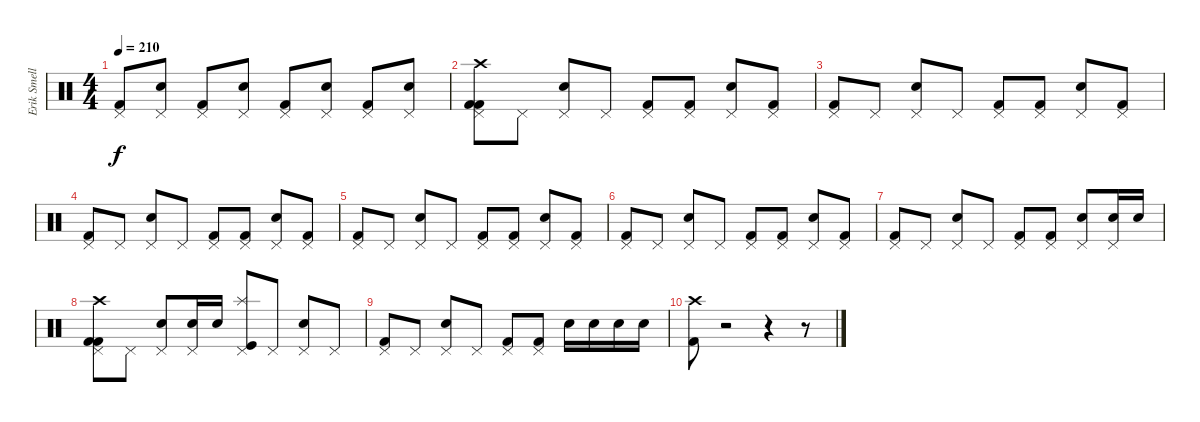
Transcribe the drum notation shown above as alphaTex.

\track ("Erik Smelly" "Erik Smell") {instrument percussion}
\staff {score}
\articulation defaults
\ts (4 4)
\tempo 210
\clef neutral
\ks c
("Pedal Hi-Hat (hit)" "Kick (hit) 2").8{dy f} ("Pedal Hi-Hat (hit)" "Electric Snare (hit)").8 ("Pedal Hi-Hat (hit)" "Kick (hit) 2").8 ("Pedal Hi-Hat (hit)" "Electric Snare (hit)").8 ("Pedal Hi-Hat (hit)" "Kick (hit) 2").8 ("Pedal Hi-Hat (hit)" "Electric Snare (hit)").8 ("Pedal Hi-Hat (hit)" "Kick (hit) 2").8 ("Pedal Hi-Hat (hit)" "Electric Snare (hit)").8 |
("Pedal Hi-Hat (hit)" "Kick (hit) 2" "Crash high (hit)" "Kick (hit) 2").8 "Pedal Hi-Hat (hit)".8 ("Pedal Hi-Hat (hit)" "Electric Snare (hit)").8 "Pedal Hi-Hat (hit)".8 ("Pedal Hi-Hat (hit)" "Kick (hit) 2").8 ("Pedal Hi-Hat (hit)" "Kick (hit) 2").8 ("Pedal Hi-Hat (hit)" "Electric Snare (hit)").8 ("Kick (hit) 2" "Pedal Hi-Hat (hit)").8 |
("Pedal Hi-Hat (hit)" "Kick (hit) 2").8 "Pedal Hi-Hat (hit)".8 ("Pedal Hi-Hat (hit)" "Electric Snare (hit)").8 "Pedal Hi-Hat (hit)".8 ("Pedal Hi-Hat (hit)" "Kick (hit) 2").8 ("Pedal Hi-Hat (hit)" "Kick (hit) 2").8 ("Pedal Hi-Hat (hit)" "Electric Snare (hit)").8 ("Kick (hit) 2" "Pedal Hi-Hat (hit)").8 |
("Pedal Hi-Hat (hit)" "Kick (hit) 2").8 "Pedal Hi-Hat (hit)".8 ("Pedal Hi-Hat (hit)" "Electric Snare (hit)").8 "Pedal Hi-Hat (hit)".8 ("Pedal Hi-Hat (hit)" "Kick (hit) 2").8 ("Pedal Hi-Hat (hit)" "Kick (hit) 2").8 ("Pedal Hi-Hat (hit)" "Electric Snare (hit)").8 ("Kick (hit) 2" "Pedal Hi-Hat (hit)").8 |
("Pedal Hi-Hat (hit)" "Kick (hit) 2").8 "Pedal Hi-Hat (hit)".8 ("Pedal Hi-Hat (hit)" "Electric Snare (hit)").8 "Pedal Hi-Hat (hit)".8 ("Pedal Hi-Hat (hit)" "Kick (hit) 2").8 ("Pedal Hi-Hat (hit)" "Kick (hit) 2").8 ("Pedal Hi-Hat (hit)" "Electric Snare (hit)").8 ("Kick (hit) 2" "Pedal Hi-Hat (hit)").8 |
("Pedal Hi-Hat (hit)" "Kick (hit) 2").8 "Pedal Hi-Hat (hit)".8 ("Pedal Hi-Hat (hit)" "Electric Snare (hit)").8 "Pedal Hi-Hat (hit)".8 ("Pedal Hi-Hat (hit)" "Kick (hit) 2").8 ("Pedal Hi-Hat (hit)" "Kick (hit) 2").8 ("Pedal Hi-Hat (hit)" "Electric Snare (hit)").8 ("Kick (hit) 2" "Pedal Hi-Hat (hit)").8 |
("Pedal Hi-Hat (hit)" "Kick (hit) 2").8 "Pedal Hi-Hat (hit)".8 ("Pedal Hi-Hat (hit)" "Electric Snare (hit)").8 "Pedal Hi-Hat (hit)".8 ("Pedal Hi-Hat (hit)" "Kick (hit) 2").8 ("Pedal Hi-Hat (hit)" "Kick (hit) 2").8 ("Pedal Hi-Hat (hit)" "Electric Snare (hit)").8 ("Pedal Hi-Hat (hit)" "Electric Snare (hit)").16 "Electric Snare (hit)".16 |
("Pedal Hi-Hat (hit)" "Kick (hit) 2" "Crash high (hit)" "Kick (hit) 2").8 "Pedal Hi-Hat (hit)".8 ("Pedal Hi-Hat (hit)" "Electric Snare (hit)").8 ("Pedal Hi-Hat (hit)" "Electric Snare (hit)").16 "Electric Snare (hit)".16 ("Splash (hit)" "Kick (hit)" "Pedal Hi-Hat (hit)").8 "Pedal Hi-Hat (hit)".8 ("Electric Snare (hit)" "Pedal Hi-Hat (hit)").8 "Pedal Hi-Hat (hit)".8 |
("Pedal Hi-Hat (hit)" "Kick (hit) 2").8 "Pedal Hi-Hat (hit)".8 ("Electric Snare (hit)" "Pedal Hi-Hat (hit)").8 "Pedal Hi-Hat (hit)".8 ("Pedal Hi-Hat (hit)" "Kick (hit) 2").8 ("Kick (hit) 2" "Pedal Hi-Hat (hit)").8 "Electric Snare (hit)".16 "Electric Snare (hit)".16 "Electric Snare (hit)".16 "Electric Snare (hit)".16 |
("Crash high (hit)" "Kick (hit) 2").8 r.2 r.4 r.8
